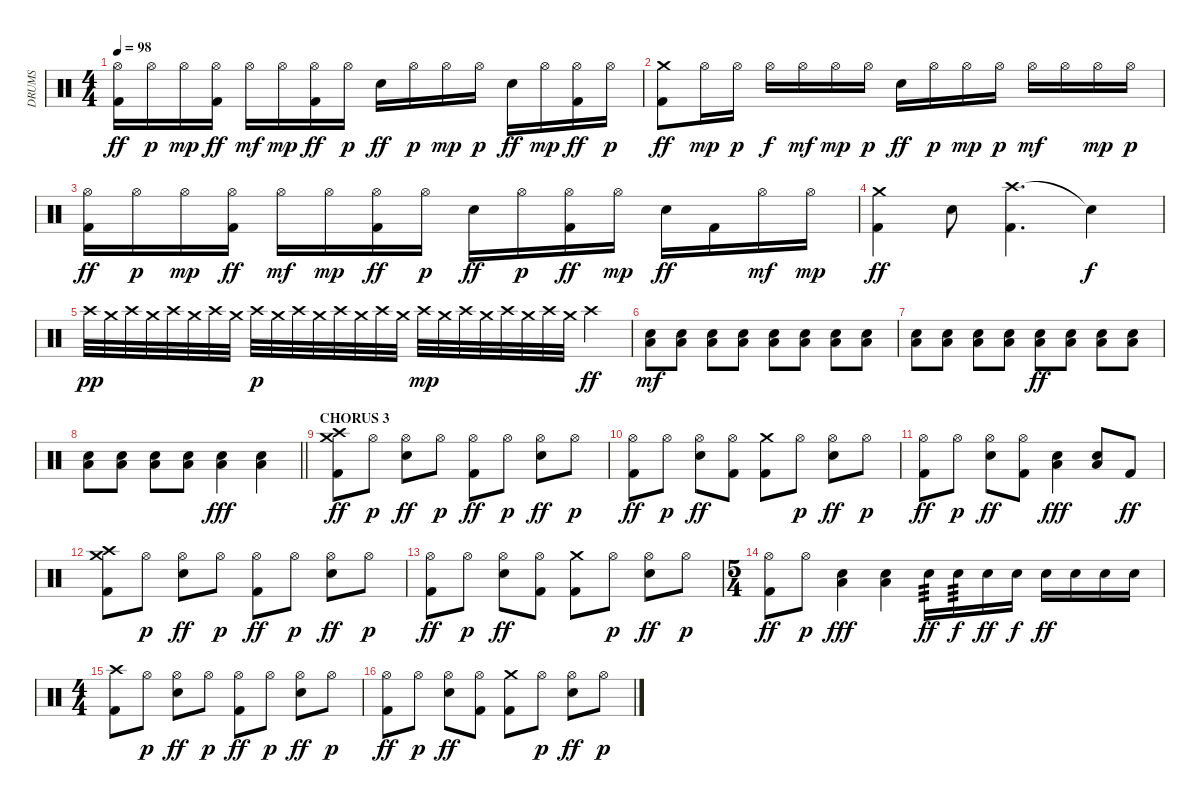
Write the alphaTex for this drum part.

\track ("DRUMS" "DRUMS") {instrument percussion}
\staff {score}
\articulation defaults
\ts (4 4)
\tempo 98
\clef neutral
\ks c
("Hi-Hat (open)" "Kick (hit) 2").16{dy ff} "Hi-Hat (open)".16{dy p} "Hi-Hat (open)".16{dy mp} ("Hi-Hat (open)" "Kick (hit) 2").16{dy ff} "Hi-Hat (open)".16{dy mf} "Hi-Hat (open)".16{dy mp} ("Hi-Hat (open)" "Kick (hit) 2").16{dy ff} "Hi-Hat (open)".16{dy p} "Snare (hit) 2".16{dy ff} "Hi-Hat (open)".16{dy p} "Hi-Hat (open)".16{dy mp} "Hi-Hat (open)".16{dy p} "Snare (hit) 2".16{dy ff} "Hi-Hat (open)".16{dy mp} ("Hi-Hat (open)" "Kick (hit) 2").16{dy ff} "Hi-Hat (open)".16{dy p} |
("Crash medium (hit)" "Kick (hit) 2").8{dy ff} "Hi-Hat (open)".16{dy mp} "Hi-Hat (open)".16{dy p} "Hi-Hat (open)".16{dy f} "Hi-Hat (open)".16{dy mf} "Hi-Hat (open)".16{dy mp} "Hi-Hat (open)".16{dy p} "Snare (hit) 2".16{dy ff} "Hi-Hat (open)".16{dy p} "Hi-Hat (open)".16{dy mp} "Hi-Hat (open)".16{dy p} "Hi-Hat (open)".16{dy mf} "Hi-Hat (open)".16 "Hi-Hat (open)".16{dy mp} "Hi-Hat (open)".16{dy p} |
("Hi-Hat (open)" "Kick (hit) 2").16{dy ff} "Hi-Hat (open)".16{dy p} "Hi-Hat (open)".16{dy mp} ("Hi-Hat (open)" "Kick (hit) 2").16{dy ff} "Hi-Hat (open)".16{dy mf} "Hi-Hat (open)".16{dy mp} ("Hi-Hat (open)" "Kick (hit) 2").16{dy ff} "Hi-Hat (open)".16{dy p} "Snare (hit) 2".16{dy ff} "Hi-Hat (open)".16{dy p} ("Hi-Hat (open)" "Kick (hit) 2").16{dy ff} "Hi-Hat (open)".16{dy mp} "Snare (hit) 2".16{dy ff} "Kick (hit) 2".16 "Hi-Hat (open)".16{dy mf} "Hi-Hat (open)".16{dy mp} |
("Crash medium (hit)" "Kick (hit) 2").4{dy ff} "Snare (hit) 2".8 ("Crash high (hit)" "Kick (hit) 2").4{d} "Snare (hit)"{t}.4{dy f} |
"Crash high (hit)".32{dy pp} "Crash medium (hit)".32 "Crash high (hit)".32 "Crash medium (hit)".32 "Crash high (hit)".32 "Crash medium (hit)".32 "Crash high (hit)".32 "Crash medium (hit)".32 "Crash high (hit)".32{dy p} "Crash medium (hit)".32 "Crash high (hit)".32 "Crash medium (hit)".32 "Crash high (hit)".32 "Crash medium (hit)".32 "Crash high (hit)".32 "Crash medium (hit)".32 "Crash high (hit)".32{dy mp} "Crash medium (hit)".32 "Crash high (hit)".32 "Crash medium (hit)".32 "Crash high (hit)".32 "Crash medium (hit)".32 "Crash high (hit)".32 "Crash medium (hit)".32 "Crash high (hit)".4{dy ff} |
("Snare (hit) 2" "Low Floor Tom (hit)").8{dy mf} ("Snare (hit) 2" "Low Floor Tom (hit)").8 ("Snare (hit) 2" "Low Floor Tom (hit)").8 ("Snare (hit) 2" "Low Floor Tom (hit)").8 ("Snare (hit) 2" "Low Floor Tom (hit)").8 ("Snare (hit) 2" "Low Floor Tom (hit)").8 ("Snare (hit) 2" "Low Floor Tom (hit)").8 ("Snare (hit) 2" "Low Floor Tom (hit)").8 |
("Snare (hit) 2" "Low Floor Tom (hit)").8 ("Snare (hit) 2" "Low Floor Tom (hit)").8 ("Snare (hit) 2" "Low Floor Tom (hit)").8 ("Snare (hit) 2" "Low Floor Tom (hit)").8 ("Snare (hit) 2" "Low Floor Tom (hit)").8{dy ff} ("Snare (hit) 2" "Low Floor Tom (hit)").8 ("Snare (hit) 2" "Low Floor Tom (hit)").8 ("Snare (hit) 2" "Low Floor Tom (hit)").8 |
\barLineRight lightlight
("Snare (hit) 2" "Low Floor Tom (hit)").8 ("Snare (hit) 2" "Low Floor Tom (hit)").8 ("Snare (hit) 2" "Low Floor Tom (hit)").8 ("Snare (hit) 2" "Low Floor Tom (hit)").8 ("Snare (hit) 2" "Low Floor Tom (hit)").4{dy fff} ("Snare (hit) 2" "Low Floor Tom (hit)").4 |
\section ("" "CHORUS 3")
("Crash high (hit)" "Crash medium (hit)" "Kick (hit) 2").8{dy ff} "Hi-Hat (open)".8{dy p} ("Hi-Hat (open)" "Snare (hit) 2").8{dy ff} "Hi-Hat (open)".8{dy p} ("Hi-Hat (open)" "Kick (hit) 2").8{dy ff} "Hi-Hat (open)".8{dy p} ("Hi-Hat (open)" "Snare (hit) 2").8{dy ff} "Hi-Hat (open)".8{dy p} |
("Hi-Hat (open)" "Kick (hit) 2").8{dy ff} "Hi-Hat (open)".8{dy p} ("Hi-Hat (open)" "Snare (hit) 2").8{dy ff} ("Hi-Hat (open)" "Kick (hit) 2").8 ("Crash medium (hit)" "Kick (hit) 2").8 "Hi-Hat (open)".8{dy p} ("Hi-Hat (open)" "Snare (hit) 2").8{dy ff} "Hi-Hat (open)".8{dy p} |
("Hi-Hat (open)" "Kick (hit) 2").8{dy ff} "Hi-Hat (open)".8{dy p} ("Hi-Hat (open)" "Snare (hit) 2").8{dy ff} ("Hi-Hat (open)" "Kick (hit) 2").8 ("Snare (hit) 2" "Low Floor Tom (hit)").4{dy fff} ("Snare (hit) 2" "Low Floor Tom (hit)").8 "Kick (hit) 2".8{dy ff} |
("Crash high (hit)" "Crash medium (hit)" "Kick (hit) 2").8 "Hi-Hat (open)".8{dy p} ("Hi-Hat (open)" "Snare (hit) 2").8{dy ff} "Hi-Hat (open)".8{dy p} ("Hi-Hat (open)" "Kick (hit) 2").8{dy ff} "Hi-Hat (open)".8{dy p} ("Hi-Hat (open)" "Snare (hit) 2").8{dy ff} "Hi-Hat (open)".8{dy p} |
("Hi-Hat (open)" "Kick (hit) 2").8{dy ff} "Hi-Hat (open)".8{dy p} ("Hi-Hat (open)" "Snare (hit) 2").8{dy ff} ("Hi-Hat (open)" "Kick (hit) 2").8 ("Crash medium (hit)" "Kick (hit) 2").8 "Hi-Hat (open)".8{dy p} ("Hi-Hat (open)" "Snare (hit) 2").8{dy ff} "Hi-Hat (open)".8{dy p} |
\ts (5 4)
("Hi-Hat (open)" "Kick (hit) 2").8{dy ff} "Hi-Hat (open)".8{dy p} ("Snare (hit) 2" "Low Floor Tom (hit)").4{dy fff} ("Snare (hit) 2" "Low Floor Tom (hit)").4 "Snare (hit) 2".16{tp 3 dy ff} "Snare (hit) 2".16{tp 3 dy f} "Snare (hit) 2".16{dy ff} "Snare (hit) 2".16{dy f} "Snare (hit) 2".16{dy ff} "Snare (hit) 2".16 "Snare (hit) 2".16 "Snare (hit) 2".16 |
\ts (4 4)
("Crash high (hit)" "Kick (hit) 2").8 "Hi-Hat (open)".8{dy p} ("Hi-Hat (open)" "Snare (hit) 2").8{dy ff} "Hi-Hat (open)".8{dy p} ("Hi-Hat (open)" "Kick (hit) 2").8{dy ff} "Hi-Hat (open)".8{dy p} ("Hi-Hat (open)" "Snare (hit) 2").8{dy ff} "Hi-Hat (open)".8{dy p} |
("Hi-Hat (open)" "Kick (hit) 2").8{dy ff} "Hi-Hat (open)".8{dy p} ("Hi-Hat (open)" "Snare (hit) 2").8{dy ff} ("Hi-Hat (open)" "Kick (hit) 2").8 ("Crash medium (hit)" "Kick (hit) 2").8 "Hi-Hat (open)".8{dy p} ("Hi-Hat (open)" "Snare (hit) 2").8{dy ff} "Hi-Hat (open)".8{dy p}
